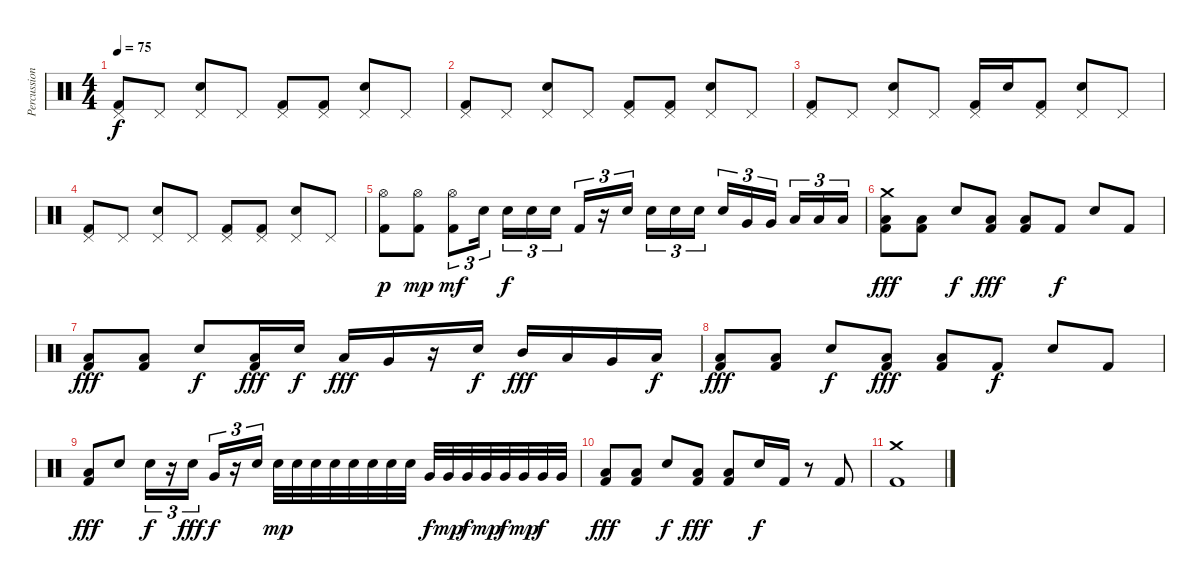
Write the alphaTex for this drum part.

\track ("Percussion" "Percussion") {instrument percussion}
\staff {score}
\articulation defaults
\ts (4 4)
\tempo 75
\clef neutral
\ks c
("Pedal Hi-Hat (hit)" "Kick (hit) 2").8{dy f} "Pedal Hi-Hat (hit)".8 ("Pedal Hi-Hat (hit)" "Snare (hit) 2").8 "Pedal Hi-Hat (hit)".8 ("Pedal Hi-Hat (hit)" "Kick (hit) 2").8 ("Pedal Hi-Hat (hit)" "Kick (hit) 2").8 ("Pedal Hi-Hat (hit)" "Snare (hit) 2").8 "Pedal Hi-Hat (hit)".8 |
("Pedal Hi-Hat (hit)" "Kick (hit) 2").8 "Pedal Hi-Hat (hit)".8 ("Pedal Hi-Hat (hit)" "Snare (hit) 2").8 "Pedal Hi-Hat (hit)".8 ("Pedal Hi-Hat (hit)" "Kick (hit) 2").8 ("Pedal Hi-Hat (hit)" "Kick (hit) 2").8 ("Pedal Hi-Hat (hit)" "Snare (hit) 2").8 "Pedal Hi-Hat (hit)".8 |
("Pedal Hi-Hat (hit)" "Kick (hit) 2").8 "Pedal Hi-Hat (hit)".8 ("Pedal Hi-Hat (hit)" "Snare (hit) 2").8 "Pedal Hi-Hat (hit)".8 ("Pedal Hi-Hat (hit)" "Kick (hit) 2").16 "Snare (hit) 2".16 ("Pedal Hi-Hat (hit)" "Kick (hit) 2").8 ("Pedal Hi-Hat (hit)" "Snare (hit) 2").8 "Pedal Hi-Hat (hit)".8 |
("Pedal Hi-Hat (hit)" "Kick (hit) 2").8 "Pedal Hi-Hat (hit)".8 ("Pedal Hi-Hat (hit)" "Snare (hit) 2").8 "Pedal Hi-Hat (hit)".8 ("Pedal Hi-Hat (hit)" "Kick (hit) 2").8 ("Pedal Hi-Hat (hit)" "Kick (hit) 2").8 ("Pedal Hi-Hat (hit)" "Snare (hit) 2").8 "Pedal Hi-Hat (hit)".8 |
("Hi-Hat (open)" "Kick (hit) 2").8{dy p} ("Hi-Hat (open)" "Kick (hit) 2").8{dy mp} ("Hi-Hat (open)" "Kick (hit) 2").8{tu (3 2) dy mf} "Snare (hit) 2".16{tu (3 2)} "Snare (hit) 2".16{tu (3 2) dy f} "Snare (hit) 2".16{tu (3 2)} "Snare (hit) 2".16{tu (3 2)} "Kick (hit) 2".16{tu (3 2)} r.16{tu (3 2)} "Snare (hit) 2".16{tu (3 2)} "Snare (hit) 2".16{tu (3 2)} "Snare (hit) 2".16{tu (3 2)} "Snare (hit) 2".16{tu (3 2)} "Snare (hit) 2".16{tu (3 2)} "Very Low Tom (hit)".16{tu (3 2)} "Very Low Tom (hit)".16{tu (3 2)} "Low Floor Tom (hit)".16{tu (3 2)} "Low Floor Tom (hit)".16{tu (3 2)} "Low Floor Tom (hit)".16{tu (3 2)} |
("Crash medium (hit)" "Low Floor Tom (hit)" "Kick (hit) 2").8{dy fff} ("Low Floor Tom (hit)" "Kick (hit) 2").8 "Snare (hit) 2".8{dy f} ("Low Floor Tom (hit)" "Kick (hit) 2").8{dy fff} ("Low Floor Tom (hit)" "Kick (hit) 2").8 "Kick (hit) 2".8{dy f} "Snare (hit) 2".8 "Kick (hit) 2".8 |
("Low Floor Tom (hit)" "Kick (hit) 2").8{dy fff} ("Low Floor Tom (hit)" "Kick (hit) 2").8 "Snare (hit) 2".8{dy f} ("Low Floor Tom (hit)" "Kick (hit) 2").16{dy fff} "Snare (hit) 2".16{dy f} "Low Tom (hit)".16{dy fff} "Very Low Tom (hit)".16 r.16 "Snare (hit) 2".16{dy f} "Mid Tom (hit)".16{dy fff} "Low Tom (hit)".16 "Very Low Tom (hit)".16 "Low Floor Tom (hit)".16{dy f} |
("Low Floor Tom (hit)" "Kick (hit) 2").8{dy fff} ("Low Floor Tom (hit)" "Kick (hit) 2").8 "Snare (hit) 2".8{dy f} ("Low Floor Tom (hit)" "Kick (hit) 2").8{dy fff} ("Low Floor Tom (hit)" "Kick (hit) 2").8 "Kick (hit) 2".8{dy f} "Snare (hit) 2".8 "Kick (hit) 2".8 |
("Low Floor Tom (hit)" "Kick (hit) 2").8{dy fff} "Snare (hit) 2".8 "Snare (hit) 2".16{tu (3 2) dy f} r.16{tu (3 2)} "Snare (hit) 2".16{tu (3 2) dy fff} "Very Low Tom (hit)".16{tu (3 2) dy f} r.16{tu (3 2)} "Snare (hit) 2".16{tu (3 2)} "Snare (hit) 2".32{dy mp} "Snare (hit) 2".32 "Snare (hit) 2".32 "Snare (hit) 2".32 "Snare (hit) 2".32 "Snare (hit) 2".32 "Snare (hit) 2".32 "Snare (hit) 2".32 "Very Low Tom (hit)".32{dy f} "Very Low Tom (hit)".32{dy mp} "Very Low Tom (hit)".32{dy f} "Very Low Tom (hit)".32{dy mp} "Very Low Tom (hit)".32{dy f} "Very Low Tom (hit)".32{dy mp} "Very Low Tom (hit)".32{dy f} "Very Low Tom (hit)".32 |
("Low Floor Tom (hit)" "Kick (hit) 2").8{dy fff} ("Low Floor Tom (hit)" "Kick (hit) 2").8 "Snare (hit) 2".8{dy f} ("Low Floor Tom (hit)" "Kick (hit) 2").8{dy fff} ("Low Floor Tom (hit)" "Kick (hit) 2").8 "Snare (hit) 2".16{dy f} "Kick (hit) 2".16 r.8 "Kick (hit) 2".8 |
("Crash medium (hit)" "Kick (hit) 2").1
